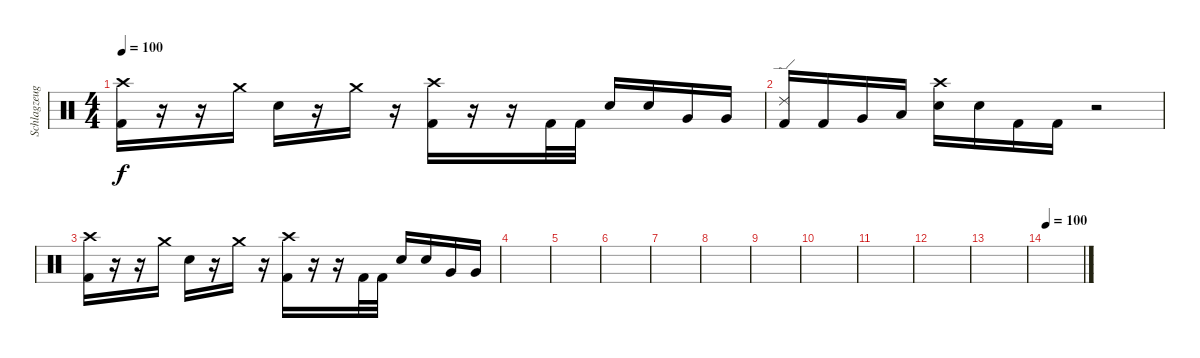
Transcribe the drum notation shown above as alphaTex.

\track ("Schlagzeug" "Schlagzeug") {instrument percussion}
\staff {score}
\articulation defaults
\ts (4 4)
\tempo 100
\clef neutral
\ks c
("Crash high (hit)" "Kick (hit) 2").16{dy f} r.16 r.16 "Crash medium (hit)".16 "Snare (hit) 2".16 r.16 "Crash medium (hit)".16 r.16 ("Crash high (hit)" "Kick (hit) 2").16 r.16 r.16 "Kick (hit) 2".32 "Kick (hit) 2".32 "Snare (hit) 2".16 "Snare (hit) 2".16 "Very Low Tom (hit)".16 "Very Low Tom (hit)".16 |
("Ride (edge) 2" "Kick (hit) 2").16 "Kick (hit) 2".16 "Very Low Tom (hit)".16 "Low Tom (hit)".16 ("Crash high (hit)" "Snare (hit) 2").16 "Snare (hit) 2".16 "Kick (hit) 2".16 "Kick (hit) 2".16 r.2 |
("Crash high (hit)" "Kick (hit) 2").16 r.16 r.16 "Crash medium (hit)".16 "Snare (hit) 2".16 r.16 "Crash medium (hit)".16 r.16 ("Crash high (hit)" "Kick (hit) 2").16 r.16 r.16 "Kick (hit) 2".32 "Kick (hit) 2".32 "Snare (hit) 2".16 "Snare (hit) 2".16 "Very Low Tom (hit)".16 "Very Low Tom (hit)".16 |
|
|
|
|
|
|
|
|
|
|
\tempo 100
